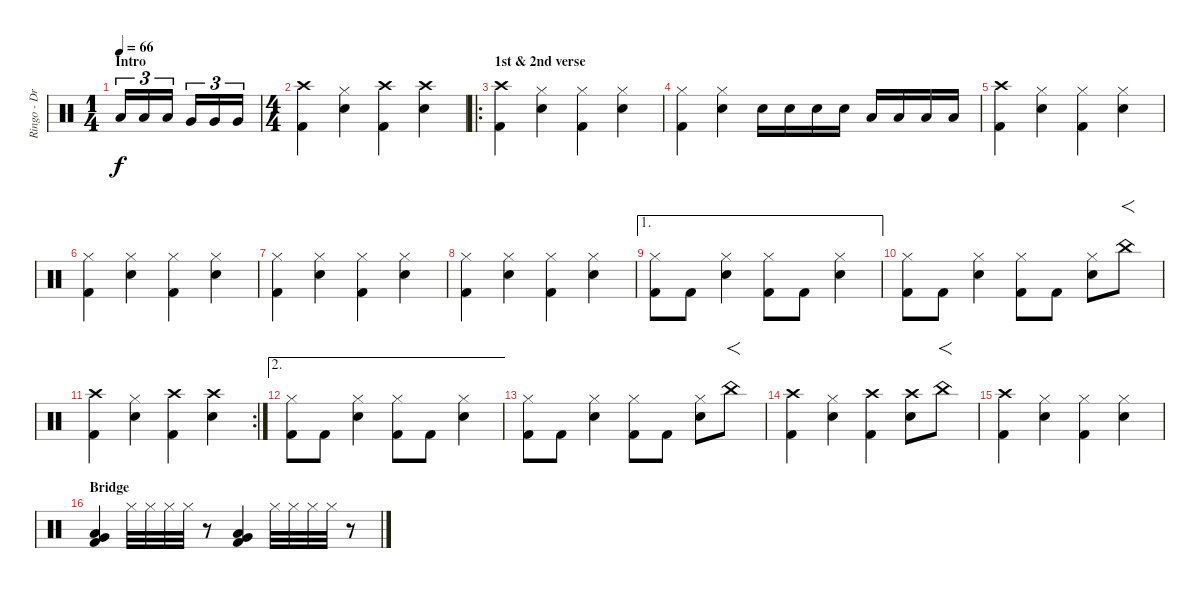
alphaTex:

\track ("Ringo - Drums" "Ringo - Dr") {instrument percussion}
\staff {score}
\articulation defaults
\ts (1 4)
\section ("" "Intro")
\tempo 66
\clef neutral
\ks c "Low Tom (hit)".16{tu (3 2) dy f} "Low Tom (hit)".16{tu (3 2)} "Low Tom (hit)".16{tu (3 2)} "Very Low Tom (hit)".16{tu (3 2)} "Very Low Tom (hit)".16{tu (3 2)} "Very Low Tom (hit)".16{tu (3 2)}
|
\ts (4 4)
("Crash high (hit)" "Kick (hit) 2").4 ("Hi-Hat (closed)" "Snare (hit) 2").4 ("Crash high (hit)" "Kick (hit) 2").4 ("Crash high (hit)" "Snare (hit) 2").4 |
\ro
\section ("" "1st & 2nd verse")
("Crash high (hit)" "Kick (hit) 2").4 ("Hi-Hat (closed)" "Snare (hit) 2").4 ("Hi-Hat (closed)" "Kick (hit) 2").4 ("Hi-Hat (closed)" "Snare (hit) 2").4 |
("Hi-Hat (closed)" "Kick (hit) 2").4 ("Hi-Hat (closed)" "Snare (hit) 2").4 "Snare (hit) 2".16 "Snare (hit) 2".16 "Snare (hit) 2".16 "Snare (hit) 2".16 "Low Tom (hit)".16 "Low Tom (hit)".16 "Low Tom (hit)".16 "Low Tom (hit)".16 |
("Crash high (hit)" "Kick (hit) 2").4 ("Hi-Hat (closed)" "Snare (hit) 2").4 ("Hi-Hat (closed)" "Kick (hit) 2").4 ("Hi-Hat (closed)" "Snare (hit) 2").4 |
("Hi-Hat (closed)" "Kick (hit) 2").4 ("Hi-Hat (closed)" "Snare (hit) 2").4 ("Hi-Hat (closed)" "Kick (hit) 2").4 ("Hi-Hat (closed)" "Snare (hit) 2").4 |
("Hi-Hat (closed)" "Kick (hit) 2").4 ("Hi-Hat (closed)" "Snare (hit) 2").4 ("Hi-Hat (closed)" "Kick (hit) 2").4 ("Hi-Hat (closed)" "Snare (hit) 2").4 |
("Hi-Hat (closed)" "Kick (hit) 2").4 ("Hi-Hat (closed)" "Snare (hit) 2").4 ("Hi-Hat (closed)" "Kick (hit) 2").4 ("Hi-Hat (closed)" "Snare (hit) 2").4 |
\ae 1
("Hi-Hat (closed)" "Kick (hit) 2").8 "Kick (hit) 2".8 ("Hi-Hat (closed)" "Snare (hit) 2").4 ("Hi-Hat (closed)" "Kick (hit) 2").8 "Kick (hit) 2".8 ("Hi-Hat (closed)" "Snare (hit) 2").4 |
("Hi-Hat (closed)" "Kick (hit) 2").8 "Kick (hit) 2".8 ("Hi-Hat (closed)" "Snare (hit) 2").4 ("Hi-Hat (closed)" "Kick (hit) 2").8 "Kick (hit) 2".8 ("Hi-Hat (closed)" "Snare (hit) 2").8 "China (hit)".8{f} |
\rc 2
("Crash high (hit)" "Kick (hit) 2").4 ("Hi-Hat (closed)" "Snare (hit) 2").4 ("Crash high (hit)" "Kick (hit) 2").4 ("Crash high (hit)" "Snare (hit) 2").4 |
\ae 2
("Hi-Hat (closed)" "Kick (hit) 2").8 "Kick (hit) 2".8 ("Hi-Hat (closed)" "Snare (hit) 2").4 ("Hi-Hat (closed)" "Kick (hit) 2").8 "Kick (hit) 2".8 ("Hi-Hat (closed)" "Snare (hit) 2").4 |
("Hi-Hat (closed)" "Kick (hit) 2").8 "Kick (hit) 2".8 ("Hi-Hat (closed)" "Snare (hit) 2").4 ("Hi-Hat (closed)" "Kick (hit) 2").8 "Kick (hit) 2".8 ("Hi-Hat (closed)" "Snare (hit) 2").8 "China (hit)".8{f} |
("Crash high (hit)" "Kick (hit) 2").4 ("Hi-Hat (closed)" "Snare (hit) 2").4 ("Crash high (hit)" "Kick (hit) 2").4 ("Crash high (hit)" "Snare (hit) 2").8 "China (hit)".8{f} |
("Crash high (hit)" "Kick (hit) 2").4 ("Hi-Hat (closed)" "Snare (hit) 2").4 ("Hi-Hat (closed)" "Kick (hit) 2").4 ("Hi-Hat (closed)" "Snare (hit) 2").4 |
\section ("" "Bridge")
("Very Low Tom (hit)" "Low Tom (hit)" "Kick (hit) 2").4 "Hi-Hat (closed)".32 "Hi-Hat (closed)".32 "Hi-Hat (closed)".32 "Hi-Hat (closed)".32 r.8 ("Very Low Tom (hit)" "Low Tom (hit)" "Kick (hit) 2").4 "Hi-Hat (closed)".32 "Hi-Hat (closed)".32 "Hi-Hat (closed)".32 "Hi-Hat (closed)".32 r.8
